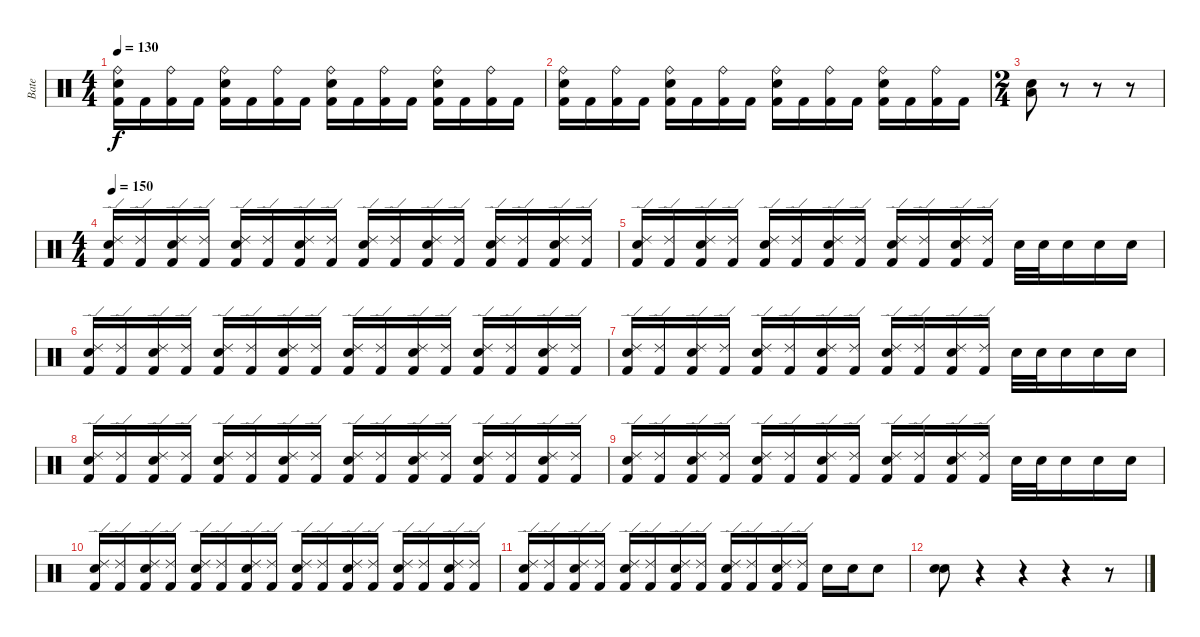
\track ("Bate" "Bate") {instrument percussion}
\staff {score}
\articulation defaults
\ts (4 4)
\tempo 130
\clef neutral
\ks c
("Ride (bell)" "Snare (hit) 2" "Kick (hit) 2").16{dy f} "Kick (hit) 2".16 ("Ride (bell)" "Kick (hit) 2").16 "Kick (hit) 2".16 ("Ride (bell)" "Snare (hit) 2" "Kick (hit) 2").16 "Kick (hit) 2".16 ("Ride (bell)" "Kick (hit) 2").16 "Kick (hit) 2".16 ("Ride (bell)" "Snare (hit) 2" "Kick (hit) 2").16 "Kick (hit) 2".16 ("Ride (bell)" "Kick (hit) 2").16 "Kick (hit) 2".16 ("Ride (bell)" "Snare (hit) 2" "Kick (hit) 2").16 "Kick (hit) 2".16 ("Ride (bell)" "Kick (hit) 2").16 "Kick (hit) 2".16 |
("Ride (bell)" "Snare (hit) 2" "Kick (hit) 2").16 "Kick (hit) 2".16 ("Ride (bell)" "Kick (hit) 2").16 "Kick (hit) 2".16 ("Ride (bell)" "Snare (hit) 2" "Kick (hit) 2").16 "Kick (hit) 2".16 ("Ride (bell)" "Kick (hit) 2").16 "Kick (hit) 2".16 ("Ride (bell)" "Snare (hit) 2" "Kick (hit) 2").16 "Kick (hit) 2".16 ("Ride (bell)" "Kick (hit) 2").16 "Kick (hit) 2".16 ("Ride (bell)" "Snare (hit) 2" "Kick (hit) 2").16 "Kick (hit) 2".16 ("Ride (bell)" "Kick (hit) 2").16 "Kick (hit) 2".16 |
\ts (2 4)
("Low Floor Tom (hit)" "Snare (hit) 2").8 r.8 r.8 r.8 |
\ts (4 4)
\tempo 150
("Ride (edge) 2" "Snare (hit) 2" "Kick (hit) 2").16 ("Ride (edge) 2" "Kick (hit) 2").16 ("Ride (edge) 2" "Snare (hit) 2" "Kick (hit) 2").16 ("Ride (edge) 2" "Kick (hit) 2").16 ("Ride (edge) 2" "Snare (hit) 2" "Kick (hit) 2").16 ("Ride (edge) 2" "Kick (hit) 2").16 ("Ride (edge) 2" "Snare (hit) 2" "Kick (hit) 2").16 ("Ride (edge) 2" "Kick (hit) 2").16 ("Ride (edge) 2" "Snare (hit) 2" "Kick (hit) 2").16 ("Ride (edge) 2" "Kick (hit) 2").16 ("Ride (edge) 2" "Snare (hit) 2" "Kick (hit) 2").16 ("Ride (edge) 2" "Kick (hit) 2").16 ("Ride (edge) 2" "Snare (hit) 2" "Kick (hit) 2").16 ("Ride (edge) 2" "Kick (hit) 2").16 ("Ride (edge) 2" "Snare (hit) 2" "Kick (hit) 2").16 ("Ride (edge) 2" "Kick (hit) 2").16 |
("Ride (edge) 2" "Snare (hit) 2" "Kick (hit) 2").16 ("Ride (edge) 2" "Kick (hit) 2").16 ("Ride (edge) 2" "Snare (hit) 2" "Kick (hit) 2").16 ("Ride (edge) 2" "Kick (hit) 2").16 ("Ride (edge) 2" "Snare (hit) 2" "Kick (hit) 2").16 ("Ride (edge) 2" "Kick (hit) 2").16 ("Ride (edge) 2" "Snare (hit) 2" "Kick (hit) 2").16 ("Ride (edge) 2" "Kick (hit) 2").16 ("Ride (edge) 2" "Snare (hit) 2" "Kick (hit) 2").16 ("Ride (edge) 2" "Kick (hit) 2").16 ("Ride (edge) 2" "Snare (hit) 2" "Kick (hit) 2").16 ("Ride (edge) 2" "Kick (hit) 2").16 "Snare (hit) 2".32 "Snare (hit) 2".32 "Snare (hit) 2".16 "Snare (hit) 2".16 "Snare (hit) 2".16 |
("Ride (edge) 2" "Snare (hit) 2" "Kick (hit) 2").16 ("Ride (edge) 2" "Kick (hit) 2").16 ("Ride (edge) 2" "Snare (hit) 2" "Kick (hit) 2").16 ("Ride (edge) 2" "Kick (hit) 2").16 ("Ride (edge) 2" "Snare (hit) 2" "Kick (hit) 2").16 ("Ride (edge) 2" "Kick (hit) 2").16 ("Ride (edge) 2" "Snare (hit) 2" "Kick (hit) 2").16 ("Ride (edge) 2" "Kick (hit) 2").16 ("Ride (edge) 2" "Snare (hit) 2" "Kick (hit) 2").16 ("Ride (edge) 2" "Kick (hit) 2").16 ("Ride (edge) 2" "Snare (hit) 2" "Kick (hit) 2").16 ("Ride (edge) 2" "Kick (hit) 2").16 ("Ride (edge) 2" "Snare (hit) 2" "Kick (hit) 2").16 ("Ride (edge) 2" "Kick (hit) 2").16 ("Ride (edge) 2" "Snare (hit) 2" "Kick (hit) 2").16 ("Ride (edge) 2" "Kick (hit) 2").16 |
("Ride (edge) 2" "Snare (hit) 2" "Kick (hit) 2").16 ("Ride (edge) 2" "Kick (hit) 2").16 ("Ride (edge) 2" "Snare (hit) 2" "Kick (hit) 2").16 ("Ride (edge) 2" "Kick (hit) 2").16 ("Ride (edge) 2" "Snare (hit) 2" "Kick (hit) 2").16 ("Ride (edge) 2" "Kick (hit) 2").16 ("Ride (edge) 2" "Snare (hit) 2" "Kick (hit) 2").16 ("Ride (edge) 2" "Kick (hit) 2").16 ("Ride (edge) 2" "Snare (hit) 2" "Kick (hit) 2").16 ("Ride (edge) 2" "Kick (hit) 2").16 ("Ride (edge) 2" "Snare (hit) 2" "Kick (hit) 2").16 ("Ride (edge) 2" "Kick (hit) 2").16 "Snare (hit) 2".32 "Snare (hit) 2".32 "Snare (hit) 2".16 "Snare (hit) 2".16 "Snare (hit) 2".16 |
("Ride (edge) 2" "Snare (hit) 2" "Kick (hit) 2").16 ("Ride (edge) 2" "Kick (hit) 2").16 ("Ride (edge) 2" "Snare (hit) 2" "Kick (hit) 2").16 ("Ride (edge) 2" "Kick (hit) 2").16 ("Ride (edge) 2" "Snare (hit) 2" "Kick (hit) 2").16 ("Ride (edge) 2" "Kick (hit) 2").16 ("Ride (edge) 2" "Snare (hit) 2" "Kick (hit) 2").16 ("Ride (edge) 2" "Kick (hit) 2").16 ("Ride (edge) 2" "Snare (hit) 2" "Kick (hit) 2").16 ("Ride (edge) 2" "Kick (hit) 2").16 ("Ride (edge) 2" "Snare (hit) 2" "Kick (hit) 2").16 ("Ride (edge) 2" "Kick (hit) 2").16 ("Ride (edge) 2" "Snare (hit) 2" "Kick (hit) 2").16 ("Ride (edge) 2" "Kick (hit) 2").16 ("Ride (edge) 2" "Snare (hit) 2" "Kick (hit) 2").16 ("Ride (edge) 2" "Kick (hit) 2").16 |
("Ride (edge) 2" "Snare (hit) 2" "Kick (hit) 2").16 ("Ride (edge) 2" "Kick (hit) 2").16 ("Ride (edge) 2" "Snare (hit) 2" "Kick (hit) 2").16 ("Ride (edge) 2" "Kick (hit) 2").16 ("Ride (edge) 2" "Snare (hit) 2" "Kick (hit) 2").16 ("Ride (edge) 2" "Kick (hit) 2").16 ("Ride (edge) 2" "Snare (hit) 2" "Kick (hit) 2").16 ("Ride (edge) 2" "Kick (hit) 2").16 ("Ride (edge) 2" "Snare (hit) 2" "Kick (hit) 2").16 ("Ride (edge) 2" "Kick (hit) 2").16 ("Ride (edge) 2" "Snare (hit) 2" "Kick (hit) 2").16 ("Ride (edge) 2" "Kick (hit) 2").16 "Snare (hit) 2".32 "Snare (hit) 2".32 "Snare (hit) 2".16 "Snare (hit) 2".16 "Snare (hit) 2".16 |
("Ride (edge) 2" "Snare (hit) 2" "Kick (hit) 2").16 ("Ride (edge) 2" "Kick (hit) 2").16 ("Ride (edge) 2" "Snare (hit) 2" "Kick (hit) 2").16 ("Ride (edge) 2" "Kick (hit) 2").16 ("Ride (edge) 2" "Snare (hit) 2" "Kick (hit) 2").16 ("Ride (edge) 2" "Kick (hit) 2").16 ("Ride (edge) 2" "Snare (hit) 2" "Kick (hit) 2").16 ("Ride (edge) 2" "Kick (hit) 2").16 ("Ride (edge) 2" "Snare (hit) 2" "Kick (hit) 2").16 ("Ride (edge) 2" "Kick (hit) 2").16 ("Ride (edge) 2" "Snare (hit) 2" "Kick (hit) 2").16 ("Ride (edge) 2" "Kick (hit) 2").16 ("Ride (edge) 2" "Snare (hit) 2" "Kick (hit) 2").16 ("Ride (edge) 2" "Kick (hit) 2").16 ("Ride (edge) 2" "Snare (hit) 2" "Kick (hit) 2").16 ("Ride (edge) 2" "Kick (hit) 2").16 |
("Ride (edge) 2" "Snare (hit) 2" "Kick (hit) 2").16 ("Ride (edge) 2" "Kick (hit) 2").16 ("Ride (edge) 2" "Snare (hit) 2" "Kick (hit) 2").16 ("Ride (edge) 2" "Kick (hit) 2").16 ("Ride (edge) 2" "Snare (hit) 2" "Kick (hit) 2").16 ("Ride (edge) 2" "Kick (hit) 2").16 ("Ride (edge) 2" "Snare (hit) 2" "Kick (hit) 2").16 ("Ride (edge) 2" "Kick (hit) 2").16 ("Ride (edge) 2" "Snare (hit) 2" "Kick (hit) 2").16 ("Ride (edge) 2" "Kick (hit) 2").16 ("Ride (edge) 2" "Snare (hit) 2" "Kick (hit) 2").16 ("Ride (edge) 2" "Kick (hit) 2").16 "Snare (hit) 2".16 "Snare (hit) 2".16 "Snare (hit) 2".8 |
("Snare (hit) 2" "Snare (hit) 2").8 r.4 r.4 r.4 r.8
